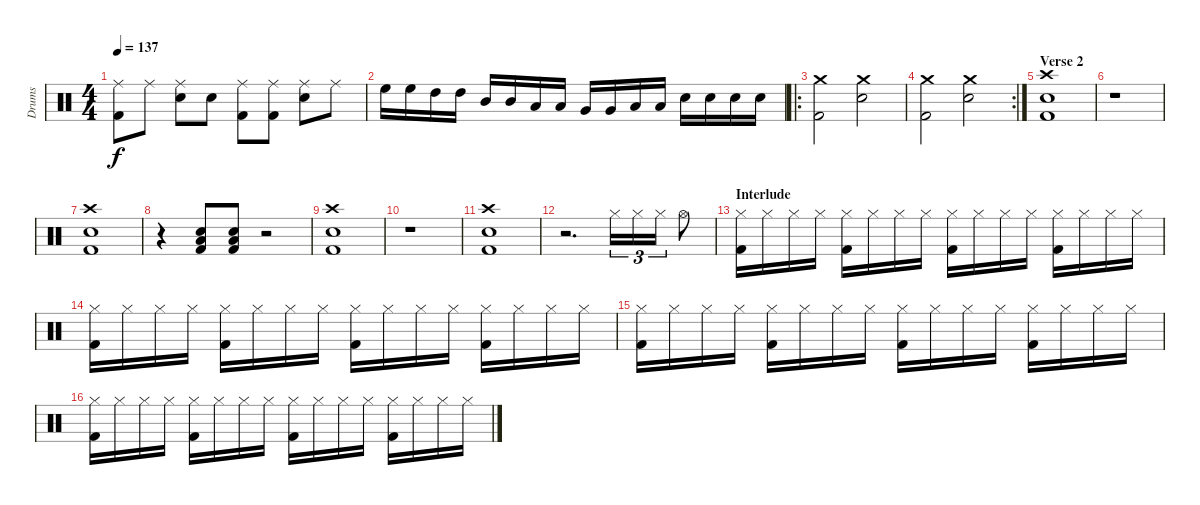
\track ("Drums" "Drums") {instrument percussion}
\staff {score}
\articulation defaults
\ts (4 4)
\tempo 137
\clef neutral
\ks c
("Ride (middle)" "Kick (hit) 2").8{dy f} "Ride (middle)".8 ("Ride (middle)" "Electric Snare (hit)").8 "Snare (hit)".8 ("Ride (middle)" "Kick (hit) 2").8 ("Ride (middle)" "Kick (hit) 2").8 ("Ride (middle)" "Electric Snare (hit)").8 "Ride (middle)".8 |
"High Floor Tom (hit)".16 "High Floor Tom (hit)".16 "High Tom (hit)".16 "High Tom (hit)".16 "Mid Tom (hit)".16 "Mid Tom (hit)".16 "Low Tom (hit)".16 "Low Tom (hit)".16 "Very Low Tom (hit)".16 "Very Low Tom (hit)".16 "Low Floor Tom (hit)".16 "Low Floor Tom (hit)".16 "Electric Snare (hit)".16 "Electric Snare (hit)".16 "Electric Snare (hit)".16 "Snare (hit)".16 |
\ro
("Crash medium (hit)" "Kick (hit) 2").2 ("Crash medium (hit)" "Electric Snare (hit)").2 |
\rc 2
("Crash medium (hit)" "Kick (hit) 2").2 ("Crash medium (hit)" "Electric Snare (hit)").2 |
\section ("" "Verse 2")
("Crash high (hit)" "Kick (hit) 2" "Electric Snare (hit)").1 |
r.1 |
("Crash high (hit)" "Kick (hit) 2" "Electric Snare (hit)").1 |
r.4 ("Low Floor Tom (hit)" "Kick (hit) 2" "Electric Snare (hit)").8 ("Low Floor Tom (hit)" "Kick (hit) 2" "Electric Snare (hit)").8 r.2 |
("Crash high (hit)" "Kick (hit) 2" "Electric Snare (hit)").1 |
r.1 |
("Crash high (hit)" "Kick (hit) 2" "Snare (hit)").1 |
r.2{d} "Hi-Hat (closed)".16{tu (3 2)} "Hi-Hat (closed)".16{tu (3 2)} "Hi-Hat (closed)".16{tu (3 2)} "Hi-Hat (open)".8 |
\section ("" "Interlude")
("Hi-Hat (closed)" "Kick (hit) 2").16 "Hi-Hat (closed)".16 "Hi-Hat (closed)".16 "Hi-Hat (closed)".16 ("Hi-Hat (closed)" "Kick (hit) 2").16 "Hi-Hat (closed)".16 "Hi-Hat (closed)".16 "Hi-Hat (closed)".16 ("Hi-Hat (closed)" "Kick (hit) 2").16 "Hi-Hat (closed)".16 "Hi-Hat (closed)".16 "Hi-Hat (closed)".16 ("Hi-Hat (closed)" "Kick (hit) 2").16 "Hi-Hat (closed)".16 "Hi-Hat (closed)".16 "Hi-Hat (closed)".16 |
("Hi-Hat (closed)" "Kick (hit) 2").16 "Hi-Hat (closed)".16 "Hi-Hat (closed)".16 "Hi-Hat (closed)".16 ("Hi-Hat (closed)" "Kick (hit) 2").16 "Hi-Hat (closed)".16 "Hi-Hat (closed)".16 "Hi-Hat (closed)".16 ("Hi-Hat (closed)" "Kick (hit) 2").16 "Hi-Hat (closed)".16 "Hi-Hat (closed)".16 "Hi-Hat (closed)".16 ("Hi-Hat (closed)" "Kick (hit) 2").16 "Hi-Hat (closed)".16 "Hi-Hat (closed)".16 "Hi-Hat (closed)".16 |
("Hi-Hat (closed)" "Kick (hit) 2").16 "Hi-Hat (closed)".16 "Hi-Hat (closed)".16 "Hi-Hat (closed)".16 ("Hi-Hat (closed)" "Kick (hit) 2").16 "Hi-Hat (closed)".16 "Hi-Hat (closed)".16 "Hi-Hat (closed)".16 ("Hi-Hat (closed)" "Kick (hit) 2").16 "Hi-Hat (closed)".16 "Hi-Hat (closed)".16 "Hi-Hat (closed)".16 ("Hi-Hat (closed)" "Kick (hit) 2").16 "Hi-Hat (closed)".16 "Hi-Hat (closed)".16 "Hi-Hat (closed)".16 |
("Hi-Hat (closed)" "Kick (hit) 2").16 "Hi-Hat (closed)".16 "Hi-Hat (closed)".16 "Hi-Hat (closed)".16 ("Hi-Hat (closed)" "Kick (hit) 2").16 "Hi-Hat (closed)".16 "Hi-Hat (closed)".16 "Hi-Hat (closed)".16 ("Hi-Hat (closed)" "Kick (hit) 2").16 "Hi-Hat (closed)".16 "Hi-Hat (closed)".16 "Hi-Hat (closed)".16 ("Hi-Hat (closed)" "Kick (hit) 2").16 "Hi-Hat (closed)".16 "Hi-Hat (closed)".16 "Hi-Hat (closed)".16
